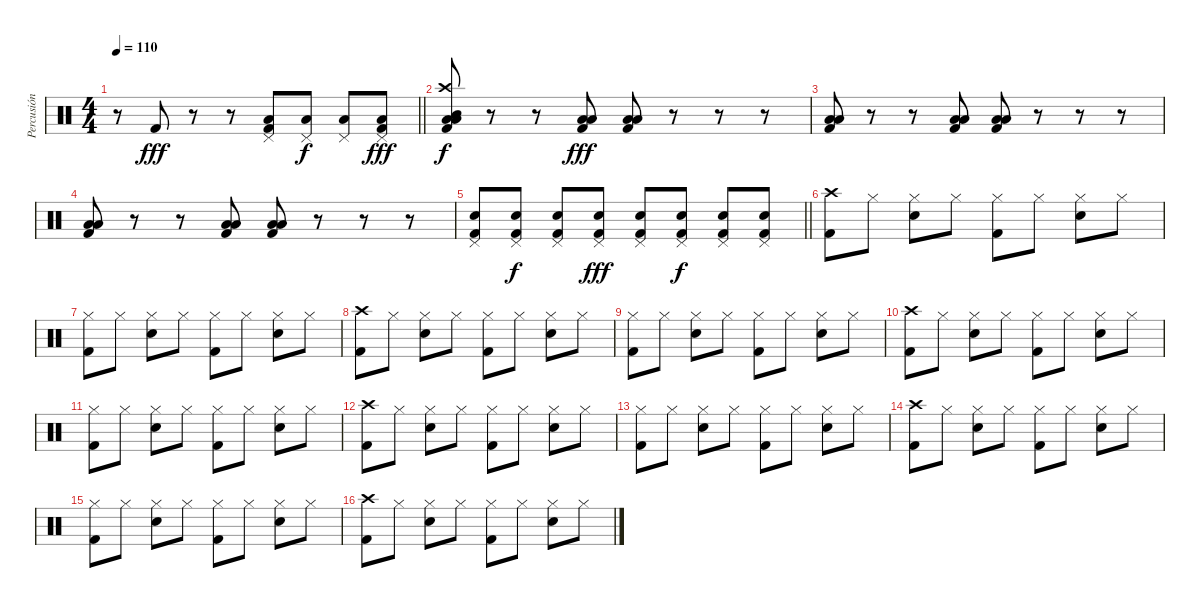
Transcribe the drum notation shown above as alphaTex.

\track ("Percusión" "Percusión") {instrument percussion}
\staff {score}
\articulation defaults
\ts (4 4)
\tempo 110
\clef neutral
\barLineRight lightlight
\ks c
r.8{dy f} "Kick (hit) 2".8{dy fff} r.8 r.8 ("Pedal Hi-Hat (hit)" "Low Floor Tom (hit)" "Kick (hit) 2").8 ("Pedal Hi-Hat (hit)" "Low Floor Tom (hit)").8{dy f} ("Pedal Hi-Hat (hit)" "Low Floor Tom (hit)").8 ("Pedal Hi-Hat (hit)" "Low Floor Tom (hit)" "Kick (hit) 2").8{dy fff} |
("Crash high (hit)" "Low Floor Tom (hit)" "Low Tom (hit)" "Mid Tom (hit)" "Kick (hit) 2").8{dy f} r.8 r.8 ("Low Floor Tom (hit)" "Low Floor Tom (hit)" "Kick (hit) 2").8{dy fff} ("Low Floor Tom (hit)" "Low Floor Tom (hit)" "Kick (hit) 2").8 r.8 r.8 r.8 |
("Low Floor Tom (hit)" "Low Floor Tom (hit)" "Kick (hit) 2").8 r.8 r.8 ("Low Floor Tom (hit)" "Low Floor Tom (hit)" "Kick (hit) 2").8 ("Low Floor Tom (hit)" "Low Floor Tom (hit)" "Kick (hit) 2").8 r.8 r.8 r.8 |
("Low Floor Tom (hit)" "Low Floor Tom (hit)" "Kick (hit) 2").8 r.8 r.8 ("Low Floor Tom (hit)" "Low Floor Tom (hit)" "Kick (hit) 2").8 ("Low Floor Tom (hit)" "Low Floor Tom (hit)" "Kick (hit) 2").8 r.8 r.8 r.8 |
\barLineRight lightlight
("Snare (hit) 2" "Pedal Hi-Hat (hit)" "Kick (hit) 2").8 ("Snare (hit) 2" "Pedal Hi-Hat (hit)" "Kick (hit) 2").8{dy f} ("Snare (hit) 2" "Pedal Hi-Hat (hit)" "Kick (hit) 2").8 ("Snare (hit) 2" "Pedal Hi-Hat (hit)" "Kick (hit) 2").8{dy fff} ("Snare (hit) 2" "Pedal Hi-Hat (hit)" "Kick (hit) 2").8 ("Snare (hit) 2" "Pedal Hi-Hat (hit)" "Kick (hit) 2").8{dy f} ("Snare (hit) 2" "Pedal Hi-Hat (hit)" "Kick (hit) 2").8 ("Snare (hit) 2" "Pedal Hi-Hat (hit)" "Kick (hit) 2").8 |
("Crash high (hit)" "Kick (hit) 2").8 "Hi-Hat (closed)".8 ("Hi-Hat (closed)" "Snare (hit) 2").8 "Hi-Hat (closed)".8 ("Hi-Hat (closed)" "Kick (hit) 2").8 "Hi-Hat (closed)".8 ("Hi-Hat (closed)" "Snare (hit) 2").8 "Hi-Hat (closed)".8 |
("Hi-Hat (closed)" "Kick (hit) 2").8 "Hi-Hat (closed)".8 ("Hi-Hat (closed)" "Snare (hit) 2").8 "Hi-Hat (closed)".8 ("Hi-Hat (closed)" "Kick (hit) 2").8 "Hi-Hat (closed)".8 ("Hi-Hat (closed)" "Snare (hit) 2").8 "Hi-Hat (closed)".8 |
("Crash high (hit)" "Kick (hit) 2").8 "Hi-Hat (closed)".8 ("Hi-Hat (closed)" "Snare (hit) 2").8 "Hi-Hat (closed)".8 ("Hi-Hat (closed)" "Kick (hit) 2").8 "Hi-Hat (closed)".8 ("Hi-Hat (closed)" "Snare (hit) 2").8 "Hi-Hat (closed)".8 |
("Hi-Hat (closed)" "Kick (hit) 2").8 "Hi-Hat (closed)".8 ("Hi-Hat (closed)" "Snare (hit) 2").8 "Hi-Hat (closed)".8 ("Hi-Hat (closed)" "Kick (hit) 2").8 "Hi-Hat (closed)".8 ("Hi-Hat (closed)" "Snare (hit) 2").8 "Hi-Hat (closed)".8 |
("Crash high (hit)" "Kick (hit) 2").8 "Hi-Hat (closed)".8 ("Hi-Hat (closed)" "Snare (hit) 2").8 "Hi-Hat (closed)".8 ("Hi-Hat (closed)" "Kick (hit) 2").8 "Hi-Hat (closed)".8 ("Hi-Hat (closed)" "Snare (hit) 2").8 "Hi-Hat (closed)".8 |
("Hi-Hat (closed)" "Kick (hit) 2").8 "Hi-Hat (closed)".8 ("Hi-Hat (closed)" "Snare (hit) 2").8 "Hi-Hat (closed)".8 ("Hi-Hat (closed)" "Kick (hit) 2").8 "Hi-Hat (closed)".8 ("Hi-Hat (closed)" "Snare (hit) 2").8 "Hi-Hat (closed)".8 |
("Crash high (hit)" "Kick (hit) 2").8 "Hi-Hat (closed)".8 ("Hi-Hat (closed)" "Snare (hit) 2").8 "Hi-Hat (closed)".8 ("Hi-Hat (closed)" "Kick (hit) 2").8 "Hi-Hat (closed)".8 ("Hi-Hat (closed)" "Snare (hit) 2").8 "Hi-Hat (closed)".8 |
("Hi-Hat (closed)" "Kick (hit) 2").8 "Hi-Hat (closed)".8 ("Hi-Hat (closed)" "Snare (hit) 2").8 "Hi-Hat (closed)".8 ("Hi-Hat (closed)" "Kick (hit) 2").8 "Hi-Hat (closed)".8 ("Hi-Hat (closed)" "Snare (hit) 2").8 "Hi-Hat (closed)".8 |
("Crash high (hit)" "Kick (hit) 2").8 "Hi-Hat (closed)".8 ("Hi-Hat (closed)" "Snare (hit) 2").8 "Hi-Hat (closed)".8 ("Hi-Hat (closed)" "Kick (hit) 2").8 "Hi-Hat (closed)".8 ("Hi-Hat (closed)" "Snare (hit) 2").8 "Hi-Hat (closed)".8 |
("Hi-Hat (closed)" "Kick (hit) 2").8 "Hi-Hat (closed)".8 ("Hi-Hat (closed)" "Snare (hit) 2").8 "Hi-Hat (closed)".8 ("Hi-Hat (closed)" "Kick (hit) 2").8 "Hi-Hat (closed)".8 ("Hi-Hat (closed)" "Snare (hit) 2").8 "Hi-Hat (closed)".8 |
("Crash high (hit)" "Kick (hit) 2").8 "Hi-Hat (closed)".8 ("Hi-Hat (closed)" "Snare (hit) 2").8 "Hi-Hat (closed)".8 ("Hi-Hat (closed)" "Kick (hit) 2").8 "Hi-Hat (closed)".8 ("Hi-Hat (closed)" "Snare (hit) 2").8 "Hi-Hat (closed)".8
